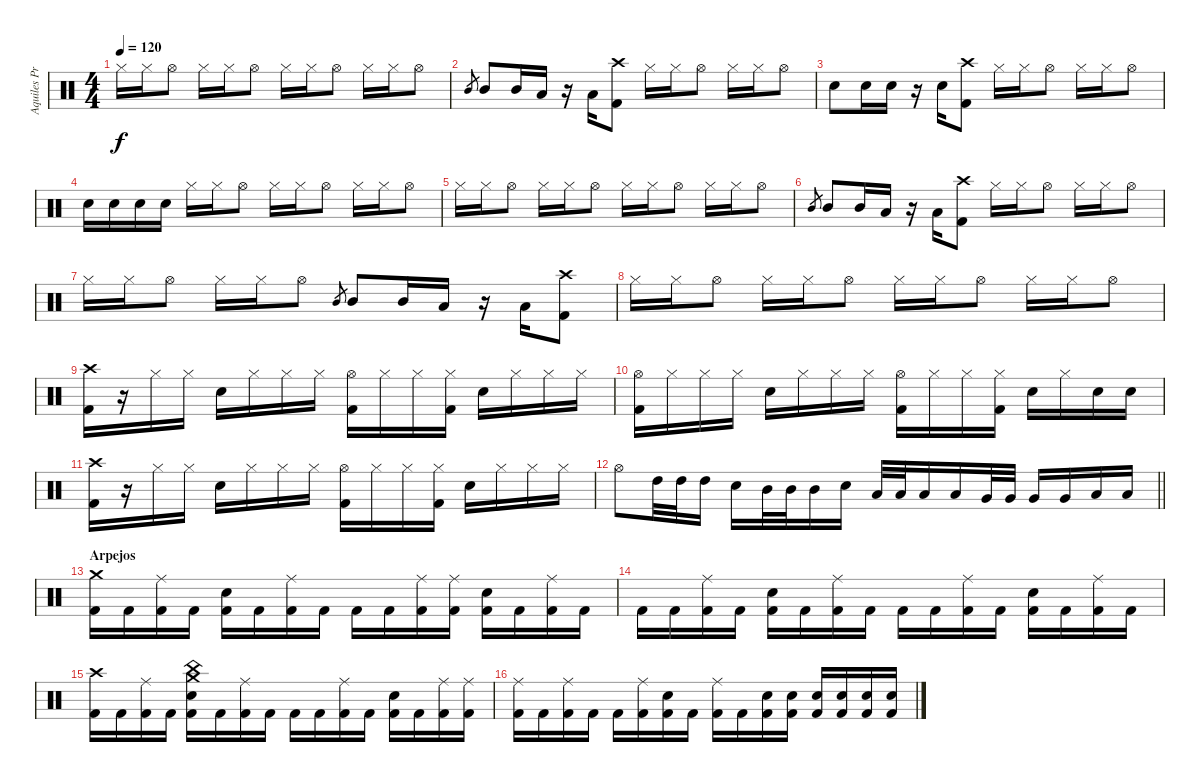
\track ("Aquiles Priester" "Aquiles Pr") {instrument percussion}
\staff {score}
\articulation defaults
\ts (4 4)
\tempo 120
\clef neutral
\ks c "Hi-Hat (closed)".16{dy f} "Hi-Hat (closed)".16 "Hi-Hat (open)".8 "Hi-Hat (closed)".16 "Hi-Hat (closed)".16 "Hi-Hat (open)".8 "Hi-Hat (closed)".16 "Hi-Hat (closed)".16 "Hi-Hat (open)".8 "Hi-Hat (closed)".16 "Hi-Hat (closed)".16 "Hi-Hat (open)".8
|
"Mid Tom (hit)".8{gr} "Mid Tom (hit)".8 "Mid Tom (hit)".16 "Low Tom (hit)".16 r.16 "Low Tom (hit)".16 ("Crash high (hit)" "Kick (hit) 2").8 "Hi-Hat (closed)".16 "Hi-Hat (closed)".16 "Hi-Hat (open)".8 "Hi-Hat (closed)".16 "Hi-Hat (closed)".16 "Hi-Hat (open)".8 |
"Electric Snare (hit)".8 "Electric Snare (hit)".16 "Electric Snare (hit)".16 r.16 "Electric Snare (hit)".16 ("Crash high (hit)" "Kick (hit) 2").8 "Hi-Hat (closed)".16 "Hi-Hat (closed)".16 "Hi-Hat (open)".8 "Hi-Hat (closed)".16 "Hi-Hat (closed)".16 "Hi-Hat (open)".8 |
"Electric Snare (hit)".16 "Electric Snare (hit)".16 "Electric Snare (hit)".16 "Electric Snare (hit)".16 "Hi-Hat (closed)".16 "Hi-Hat (closed)".16 "Hi-Hat (open)".8 "Hi-Hat (closed)".16 "Hi-Hat (closed)".16 "Hi-Hat (open)".8 "Hi-Hat (closed)".16 "Hi-Hat (closed)".16 "Hi-Hat (open)".8 |
"Hi-Hat (closed)".16 "Hi-Hat (closed)".16 "Hi-Hat (open)".8 "Hi-Hat (closed)".16 "Hi-Hat (closed)".16 "Hi-Hat (open)".8 "Hi-Hat (closed)".16 "Hi-Hat (closed)".16 "Hi-Hat (open)".8 "Hi-Hat (closed)".16 "Hi-Hat (closed)".16 "Hi-Hat (open)".8 |
"Mid Tom (hit)".8{gr} "Mid Tom (hit)".8 "Mid Tom (hit)".16 "Low Tom (hit)".16 r.16 "Low Tom (hit)".16 ("Crash high (hit)" "Kick (hit) 2").8 "Hi-Hat (closed)".16 "Hi-Hat (closed)".16 "Hi-Hat (open)".8 "Hi-Hat (closed)".16 "Hi-Hat (closed)".16 "Hi-Hat (open)".8 |
"Hi-Hat (closed)".16 "Hi-Hat (closed)".16 "Hi-Hat (open)".8 "Hi-Hat (closed)".16 "Hi-Hat (closed)".16 "Hi-Hat (open)".8 "Mid Tom (hit)".8{gr} "Mid Tom (hit)".8 "Mid Tom (hit)".16 "Low Tom (hit)".16 r.16 "Low Tom (hit)".16 ("Crash high (hit)" "Kick (hit) 2").8 |
"Hi-Hat (closed)".16 "Hi-Hat (closed)".16 "Hi-Hat (open)".8 "Hi-Hat (closed)".16 "Hi-Hat (closed)".16 "Hi-Hat (open)".8 "Hi-Hat (closed)".16 "Hi-Hat (closed)".16 "Hi-Hat (open)".8 "Hi-Hat (closed)".16 "Hi-Hat (closed)".16 "Hi-Hat (open)".8 |
("Crash high (hit)" "Kick (hit) 2").16 r.16 "Hi-Hat (closed)".16 "Hi-Hat (closed)".16 "Electric Snare (hit)".16 "Hi-Hat (closed)".16 "Hi-Hat (closed)".16 "Hi-Hat (closed)".16 ("Hi-Hat (open)" "Kick (hit) 2").16 "Hi-Hat (closed)".16 "Hi-Hat (closed)".16 ("Hi-Hat (closed)" "Kick (hit) 2").16 "Electric Snare (hit)".16 "Hi-Hat (closed)".16 "Hi-Hat (closed)".16 "Hi-Hat (closed)".16 |
("Hi-Hat (open)" "Kick (hit) 2").16 "Hi-Hat (closed)".16 "Hi-Hat (closed)".16 "Hi-Hat (closed)".16 "Electric Snare (hit)".16 "Hi-Hat (closed)".16 "Hi-Hat (closed)".16 "Hi-Hat (closed)".16 ("Hi-Hat (open)" "Kick (hit) 2").16 "Hi-Hat (closed)".16 "Hi-Hat (closed)".16 ("Hi-Hat (closed)" "Kick (hit) 2").16 "Electric Snare (hit)".16 "Hi-Hat (closed)".16 "Electric Snare (hit)".16 "Electric Snare (hit)".16 |
("Crash high (hit)" "Kick (hit) 2").16 r.16 "Hi-Hat (closed)".16 "Hi-Hat (closed)".16 "Electric Snare (hit)".16 "Hi-Hat (closed)".16 "Hi-Hat (closed)".16 "Hi-Hat (closed)".16 ("Hi-Hat (open)" "Kick (hit) 2").16 "Hi-Hat (closed)".16 "Hi-Hat (closed)".16 ("Hi-Hat (closed)" "Kick (hit) 2").16 "Electric Snare (hit)".16 "Hi-Hat (closed)".16 "Hi-Hat (closed)".16 "Hi-Hat (closed)".16 |
\barLineRight lightlight "Hi-Hat (open)".8 "High Tom (hit)".32 "High Tom (hit)".32 "High Tom (hit)".16 "Electric Snare (hit)".16 "Mid Tom (hit)".32 "Mid Tom (hit)".32 "Mid Tom (hit)".16 "Electric Snare (hit)".16 "Low Tom (hit)".32 "Low Tom (hit)".32 "Low Tom (hit)".16 "Low Tom (hit)".16 "Very Low Tom (hit)".32 "Very Low Tom (hit)".32 "Very Low Tom (hit)".16 "Very Low Tom (hit)".16 "Low Floor Tom (hit)".16 "Low Floor Tom (hit)".16
|
\section ("" "Arpejos")
("Crash medium (hit)" "Kick (hit) 2").16 "Kick (hit) 2".16 ("Ride (middle)" "Kick (hit) 2").16 "Kick (hit) 2".16 ("Electric Snare (hit)" "Kick (hit) 2").16 "Kick (hit) 2".16 ("Ride (middle)" "Kick (hit) 2").16 "Kick (hit) 2".16 "Kick (hit) 2".16 "Kick (hit) 2".16 ("Ride (middle)" "Kick (hit) 2").16 ("Ride (middle)" "Kick (hit) 2").16 ("Electric Snare (hit)" "Kick (hit) 2").16 "Kick (hit) 2".16 ("Ride (middle)" "Kick (hit) 2").16 "Kick (hit) 2".16 |
"Kick (hit) 2".16 "Kick (hit) 2".16 ("Ride (middle)" "Kick (hit) 2").16 "Kick (hit) 2".16 ("Electric Snare (hit)" "Kick (hit) 2").16 "Kick (hit) 2".16 ("Ride (middle)" "Kick (hit) 2").16 "Kick (hit) 2".16 "Kick (hit) 2".16 "Kick (hit) 2".16 ("Ride (middle)" "Kick (hit) 2").16 "Kick (hit) 2".16 ("Electric Snare (hit)" "Kick (hit) 2").16 "Kick (hit) 2".16 ("Ride (middle)" "Kick (hit) 2").16 "Kick (hit) 2".16 |
("Crash high (hit)" "Kick (hit) 2").16 "Kick (hit) 2".16 ("Ride (middle)" "Kick (hit) 2").16 "Kick (hit) 2".16 ("Crash medium (hit)" "China (hit)" "Electric Snare (hit)" "Kick (hit) 2").16 "Kick (hit) 2".16 ("Ride (middle)" "Kick (hit) 2").16 "Kick (hit) 2".16 "Kick (hit) 2".16 "Kick (hit) 2".16 ("Ride (middle)" "Kick (hit) 2").16 "Kick (hit) 2".16 ("Electric Snare (hit)" "Kick (hit) 2").16 "Kick (hit) 2".16 ("Ride (middle)" "Kick (hit) 2").16 ("Ride (middle)" "Kick (hit) 2").16 |
("Ride (middle)" "Kick (hit) 2").16 "Kick (hit) 2".16 ("Ride (middle)" "Kick (hit) 2").16 "Kick (hit) 2".16 "Kick (hit) 2".16 ("Ride (middle)" "Kick (hit) 2").16 ("Electric Snare (hit)" "Kick (hit) 2").16 "Kick (hit) 2".16 ("Ride (middle)" "Kick (hit) 2").16 "Kick (hit) 2".16 ("Electric Snare (hit)" "Kick (hit) 2").16 ("Electric Snare (hit)" "Kick (hit) 2").16 ("Electric Snare (hit)" "Kick (hit) 2").16 ("Electric Snare (hit)" "Kick (hit) 2").16 ("Electric Snare (hit)" "Kick (hit) 2").16 ("Electric Snare (hit)" "Kick (hit) 2").16
